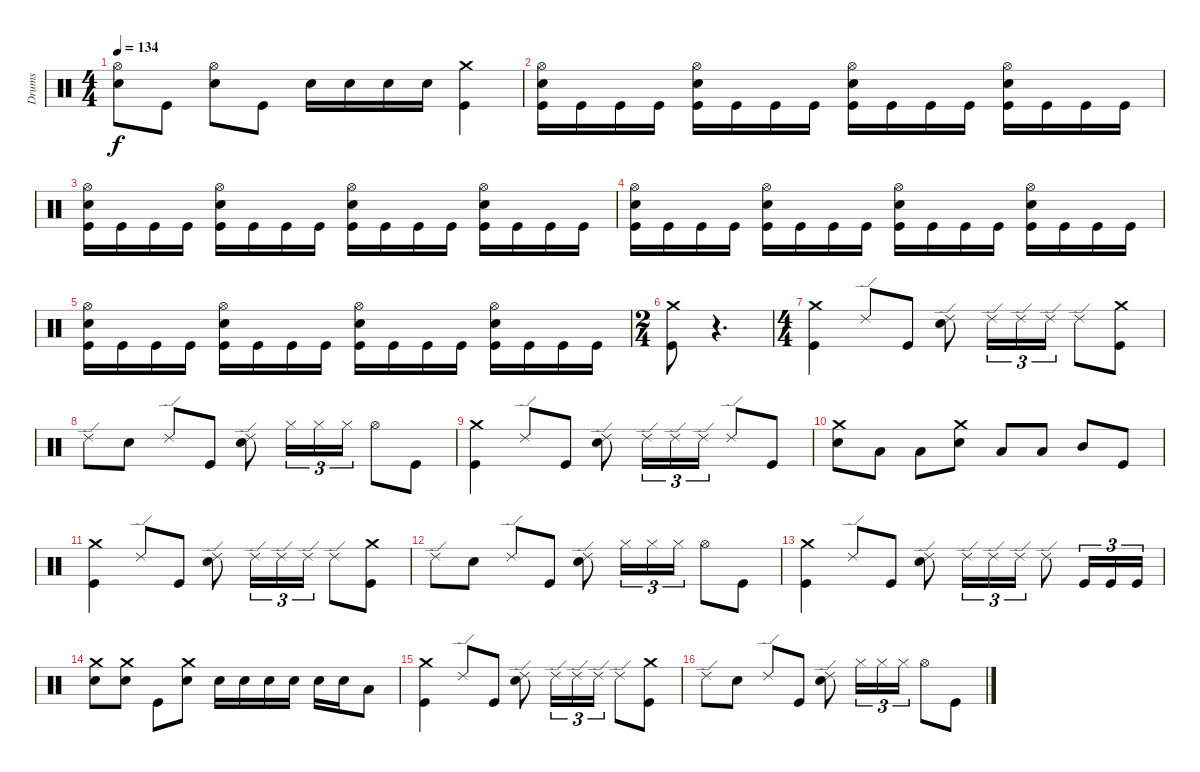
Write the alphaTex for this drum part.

\track ("Drums" "Drums") {instrument percussion}
\staff {score}
\articulation defaults
\ts (4 4)
\tempo 134
\clef neutral
\ks c
("Hi-Hat (open)" "Electric Snare (hit)").8{dy f} "Kick (hit)".8 ("Hi-Hat (open)" "Electric Snare (hit)").8 "Kick (hit)".8 "Electric Snare (hit)".16 "Electric Snare (hit)".16 "Electric Snare (hit)".16 "Electric Snare (hit)".16 ("Crash medium (hit)" "Kick (hit)").4 |
("Electric Snare (hit)" "Hi-Hat (open)" "Kick (hit)").16 "Kick (hit)".16 "Kick (hit)".16 "Kick (hit)".16 ("Electric Snare (hit)" "Hi-Hat (open)" "Kick (hit)").16 "Kick (hit)".16 "Kick (hit)".16 "Kick (hit)".16 ("Electric Snare (hit)" "Hi-Hat (open)" "Kick (hit)").16 "Kick (hit)".16 "Kick (hit)".16 "Kick (hit)".16 ("Electric Snare (hit)" "Hi-Hat (open)" "Kick (hit)").16 "Kick (hit)".16 "Kick (hit)".16 "Kick (hit)".16 |
("Electric Snare (hit)" "Hi-Hat (open)" "Kick (hit)").16 "Kick (hit)".16 "Kick (hit)".16 "Kick (hit)".16 ("Electric Snare (hit)" "Hi-Hat (open)" "Kick (hit)").16 "Kick (hit)".16 "Kick (hit)".16 "Kick (hit)".16 ("Electric Snare (hit)" "Hi-Hat (open)" "Kick (hit)").16 "Kick (hit)".16 "Kick (hit)".16 "Kick (hit)".16 ("Electric Snare (hit)" "Hi-Hat (open)" "Kick (hit)").16 "Kick (hit)".16 "Kick (hit)".16 "Kick (hit)".16 |
("Electric Snare (hit)" "Hi-Hat (open)" "Kick (hit)").16 "Kick (hit)".16 "Kick (hit)".16 "Kick (hit)".16 ("Electric Snare (hit)" "Hi-Hat (open)" "Kick (hit)").16 "Kick (hit)".16 "Kick (hit)".16 "Kick (hit)".16 ("Electric Snare (hit)" "Hi-Hat (open)" "Kick (hit)").16 "Kick (hit)".16 "Kick (hit)".16 "Kick (hit)".16 ("Electric Snare (hit)" "Hi-Hat (open)" "Kick (hit)").16 "Kick (hit)".16 "Kick (hit)".16 "Kick (hit)".16 |
("Electric Snare (hit)" "Hi-Hat (open)" "Kick (hit)").16 "Kick (hit)".16 "Kick (hit)".16 "Kick (hit)".16 ("Electric Snare (hit)" "Hi-Hat (open)" "Kick (hit)").16 "Kick (hit)".16 "Kick (hit)".16 "Kick (hit)".16 ("Electric Snare (hit)" "Hi-Hat (open)" "Kick (hit)").16 "Kick (hit)".16 "Kick (hit)".16 "Kick (hit)".16 ("Electric Snare (hit)" "Hi-Hat (open)" "Kick (hit)").16 "Kick (hit)".16 "Kick (hit)".16 "Kick (hit)".16 |
\ts (2 4)
("Crash medium (hit)" "Kick (hit)").8 r.4{d volume 0} |
\ts (4 4)
("Crash medium (hit)" "Kick (hit)").4{volume 16} "Ride (edge) 2".8 "Kick (hit)".8 ("Ride (edge) 2" "Electric Snare (hit)").8 "Ride (edge) 2".16{tu (3 2)} "Ride (edge) 2".16{tu (3 2)} "Ride (edge) 2".16{tu (3 2)} "Ride (edge) 2".8 ("Crash medium (hit)" "Kick (hit)").8 |
"Ride (edge) 2".8 "Electric Snare (hit)".8 "Ride (edge) 2".8 "Kick (hit)".8 ("Ride (edge) 2" "Electric Snare (hit)").8 "Hi-Hat (closed)".16{tu (3 2)} "Hi-Hat (closed)".16{tu (3 2)} "Hi-Hat (closed)".16{tu (3 2)} "Hi-Hat (open)".8 "Kick (hit)".8 |
("Crash medium (hit)" "Kick (hit)").4 "Ride (edge) 2".8 "Kick (hit)".8 ("Ride (edge) 2" "Electric Snare (hit)").8 "Ride (edge) 2".16{tu (3 2)} "Ride (edge) 2".16{tu (3 2)} "Ride (edge) 2".16{tu (3 2)} "Ride (edge) 2".8 "Kick (hit)".8 |
("Crash medium (hit)" "Electric Snare (hit)").8 "Low Floor Tom (hit)".8 "Low Tom (hit)".8 ("Crash medium (hit)" "Electric Snare (hit)").8 "Low Floor Tom (hit)".8 "Low Tom (hit)".8 "Mid Tom (hit)".8 "Kick (hit)".8 |
("Crash medium (hit)" "Kick (hit)").4 "Ride (edge) 2".8 "Kick (hit)".8 ("Ride (edge) 2" "Electric Snare (hit)").8 "Ride (edge) 2".16{tu (3 2)} "Ride (edge) 2".16{tu (3 2)} "Ride (edge) 2".16{tu (3 2)} "Ride (edge) 2".8 ("Crash medium (hit)" "Kick (hit)").8 |
"Ride (edge) 2".8 "Electric Snare (hit)".8 "Ride (edge) 2".8 "Kick (hit)".8 ("Ride (edge) 2" "Electric Snare (hit)").8 "Hi-Hat (closed)".16{tu (3 2)} "Hi-Hat (closed)".16{tu (3 2)} "Hi-Hat (closed)".16{tu (3 2)} "Hi-Hat (open)".8 "Kick (hit)".8 |
("Crash medium (hit)" "Kick (hit)").4 "Ride (edge) 2".8 "Kick (hit)".8 ("Ride (edge) 2" "Electric Snare (hit)").8 "Ride (edge) 2".16{tu (3 2)} "Ride (edge) 2".16{tu (3 2)} "Ride (edge) 2".16{tu (3 2)} "Ride (edge) 2".8 "Kick (hit)".16{tu (3 2)} "Kick (hit)".16{tu (3 2)} "Kick (hit)".16{tu (3 2)} |
("Crash medium (hit)" "Electric Snare (hit)").8 ("Crash medium (hit)" "Electric Snare (hit)").8 "Kick (hit)".8 ("Crash medium (hit)" "Electric Snare (hit)").8 "Electric Snare (hit)".16 "Electric Snare (hit)".16 "Electric Snare (hit)".16 "Electric Snare (hit)".16 "Electric Snare (hit)".16 "Electric Snare (hit)".16 "Low Tom (hit)".8 |
("Crash medium (hit)" "Kick (hit)").4 "Ride (edge) 2".8 "Kick (hit)".8 ("Ride (edge) 2" "Electric Snare (hit)").8 "Ride (edge) 2".16{tu (3 2)} "Ride (edge) 2".16{tu (3 2)} "Ride (edge) 2".16{tu (3 2)} "Ride (edge) 2".8 ("Crash medium (hit)" "Kick (hit)").8 |
"Ride (edge) 2".8 "Electric Snare (hit)".8 "Ride (edge) 2".8 "Kick (hit)".8 ("Ride (edge) 2" "Electric Snare (hit)").8 "Hi-Hat (closed)".16{tu (3 2)} "Hi-Hat (closed)".16{tu (3 2)} "Hi-Hat (closed)".16{tu (3 2)} "Hi-Hat (open)".8 "Kick (hit)".8
